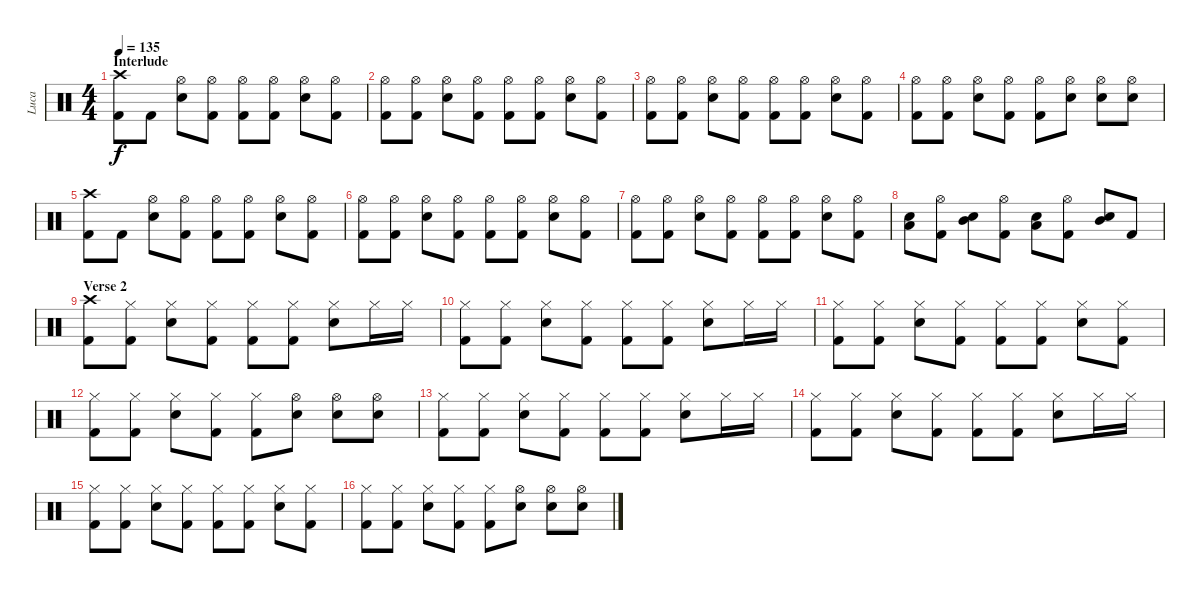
\track ("Luca" "Luca") {instrument percussion}
\staff {score}
\articulation defaults
\ts (4 4)
\section ("" "Interlude")
\tempo 135
\clef neutral
\ks c
("Crash high (hit)" "Kick (hit) 2").8{dy f} "Kick (hit) 2".8 ("Hi-Hat (open)" "Snare (hit) 2").8 ("Hi-Hat (open)" "Kick (hit) 2").8 ("Hi-Hat (open)" "Kick (hit) 2").8 ("Hi-Hat (open)" "Kick (hit) 2").8 ("Hi-Hat (open)" "Snare (hit) 2").8 ("Hi-Hat (open)" "Kick (hit) 2").8 |
("Hi-Hat (open)" "Kick (hit) 2").8 ("Hi-Hat (open)" "Kick (hit) 2").8 ("Hi-Hat (open)" "Snare (hit) 2").8 ("Hi-Hat (open)" "Kick (hit) 2").8 ("Hi-Hat (open)" "Kick (hit) 2").8 ("Hi-Hat (open)" "Kick (hit) 2").8 ("Hi-Hat (open)" "Snare (hit) 2").8 ("Hi-Hat (open)" "Kick (hit) 2").8 |
("Hi-Hat (open)" "Kick (hit) 2").8 ("Hi-Hat (open)" "Kick (hit) 2").8 ("Hi-Hat (open)" "Snare (hit) 2").8 ("Hi-Hat (open)" "Kick (hit) 2").8 ("Hi-Hat (open)" "Kick (hit) 2").8 ("Hi-Hat (open)" "Kick (hit) 2").8 ("Hi-Hat (open)" "Snare (hit) 2").8 ("Hi-Hat (open)" "Kick (hit) 2").8 |
("Hi-Hat (open)" "Kick (hit) 2").8 ("Hi-Hat (open)" "Kick (hit) 2").8 ("Hi-Hat (open)" "Snare (hit) 2").8 ("Hi-Hat (open)" "Kick (hit) 2").8 ("Hi-Hat (open)" "Kick (hit) 2").8 ("Hi-Hat (open)" "Snare (hit) 2").8 ("Hi-Hat (open)" "Snare (hit) 2").8 ("Hi-Hat (open)" "Snare (hit) 2").8 |
("Crash high (hit)" "Kick (hit) 2").8 "Kick (hit) 2".8 ("Hi-Hat (open)" "Snare (hit) 2").8 ("Hi-Hat (open)" "Kick (hit) 2").8 ("Hi-Hat (open)" "Kick (hit) 2").8 ("Hi-Hat (open)" "Kick (hit) 2").8 ("Hi-Hat (open)" "Snare (hit) 2").8 ("Hi-Hat (open)" "Kick (hit) 2").8 |
("Hi-Hat (open)" "Kick (hit) 2").8 ("Hi-Hat (open)" "Kick (hit) 2").8 ("Hi-Hat (open)" "Snare (hit) 2").8 ("Hi-Hat (open)" "Kick (hit) 2").8 ("Hi-Hat (open)" "Kick (hit) 2").8 ("Hi-Hat (open)" "Kick (hit) 2").8 ("Hi-Hat (open)" "Snare (hit) 2").8 ("Hi-Hat (open)" "Kick (hit) 2").8 |
("Hi-Hat (open)" "Kick (hit) 2").8 ("Hi-Hat (open)" "Kick (hit) 2").8 ("Hi-Hat (open)" "Snare (hit) 2").8 ("Hi-Hat (open)" "Kick (hit) 2").8 ("Hi-Hat (open)" "Kick (hit) 2").8 ("Hi-Hat (open)" "Kick (hit) 2").8 ("Hi-Hat (open)" "Snare (hit) 2").8 ("Hi-Hat (open)" "Kick (hit) 2").8 |
("Low Tom (hit)" "Snare (hit) 2").8 ("Hi-Hat (open)" "Kick (hit) 2").8 ("Mid Tom (hit)" "Snare (hit) 2").8 ("Hi-Hat (open)" "Kick (hit) 2").8 ("Low Tom (hit)" "Snare (hit) 2").8 ("Hi-Hat (open)" "Kick (hit) 2").8 ("Mid Tom (hit)" "Snare (hit) 2").8 "Kick (hit) 2".8 |
\section ("" "Verse 2")
("Crash high (hit)" "Kick (hit) 2").8 ("Hi-Hat (closed)" "Kick (hit) 2").8 ("Hi-Hat (closed)" "Snare (hit) 2").8 ("Hi-Hat (closed)" "Kick (hit) 2").8 ("Hi-Hat (closed)" "Kick (hit) 2").8 ("Hi-Hat (closed)" "Kick (hit) 2").8 ("Hi-Hat (closed)" "Snare (hit) 2").8 "Hi-Hat (closed)".16 "Hi-Hat (closed)".16 |
("Hi-Hat (closed)" "Kick (hit) 2").8 ("Hi-Hat (closed)" "Kick (hit) 2").8 ("Hi-Hat (closed)" "Snare (hit) 2").8 ("Hi-Hat (closed)" "Kick (hit) 2").8 ("Hi-Hat (closed)" "Kick (hit) 2").8 ("Hi-Hat (closed)" "Kick (hit) 2").8 ("Hi-Hat (closed)" "Snare (hit) 2").8 "Hi-Hat (closed)".16 "Hi-Hat (closed)".16 |
("Hi-Hat (closed)" "Kick (hit) 2").8 ("Hi-Hat (closed)" "Kick (hit) 2").8 ("Hi-Hat (closed)" "Snare (hit) 2").8 ("Hi-Hat (closed)" "Kick (hit) 2").8 ("Hi-Hat (closed)" "Kick (hit) 2").8 ("Hi-Hat (closed)" "Kick (hit) 2").8 ("Hi-Hat (closed)" "Snare (hit) 2").8 ("Hi-Hat (closed)" "Kick (hit) 2").8 |
("Hi-Hat (closed)" "Kick (hit) 2").8 ("Hi-Hat (closed)" "Kick (hit) 2").8 ("Hi-Hat (closed)" "Snare (hit) 2").8 ("Hi-Hat (closed)" "Kick (hit) 2").8 ("Hi-Hat (closed)" "Kick (hit) 2").8 ("Hi-Hat (open)" "Snare (hit) 2").8 ("Hi-Hat (open)" "Snare (hit) 2").8 ("Hi-Hat (open)" "Snare (hit) 2").8 |
("Hi-Hat (closed)" "Kick (hit) 2").8 ("Hi-Hat (closed)" "Kick (hit) 2").8 ("Hi-Hat (closed)" "Snare (hit) 2").8 ("Hi-Hat (closed)" "Kick (hit) 2").8 ("Hi-Hat (closed)" "Kick (hit) 2").8 ("Hi-Hat (closed)" "Kick (hit) 2").8 ("Hi-Hat (closed)" "Snare (hit) 2").8 "Hi-Hat (closed)".16 "Hi-Hat (closed)".16 |
("Hi-Hat (closed)" "Kick (hit) 2").8 ("Hi-Hat (closed)" "Kick (hit) 2").8 ("Hi-Hat (closed)" "Snare (hit) 2").8 ("Hi-Hat (closed)" "Kick (hit) 2").8 ("Hi-Hat (closed)" "Kick (hit) 2").8 ("Hi-Hat (closed)" "Kick (hit) 2").8 ("Hi-Hat (closed)" "Snare (hit) 2").8 "Hi-Hat (closed)".16 "Hi-Hat (closed)".16 |
("Hi-Hat (closed)" "Kick (hit) 2").8 ("Hi-Hat (closed)" "Kick (hit) 2").8 ("Hi-Hat (closed)" "Snare (hit) 2").8 ("Hi-Hat (closed)" "Kick (hit) 2").8 ("Hi-Hat (closed)" "Kick (hit) 2").8 ("Hi-Hat (closed)" "Kick (hit) 2").8 ("Hi-Hat (closed)" "Snare (hit) 2").8 ("Hi-Hat (closed)" "Kick (hit) 2").8 |
("Hi-Hat (closed)" "Kick (hit) 2").8 ("Hi-Hat (closed)" "Kick (hit) 2").8 ("Hi-Hat (closed)" "Snare (hit) 2").8 ("Hi-Hat (closed)" "Kick (hit) 2").8 ("Hi-Hat (closed)" "Kick (hit) 2").8 ("Hi-Hat (open)" "Snare (hit) 2").8 ("Hi-Hat (open)" "Snare (hit) 2").8 ("Hi-Hat (open)" "Snare (hit) 2").8
